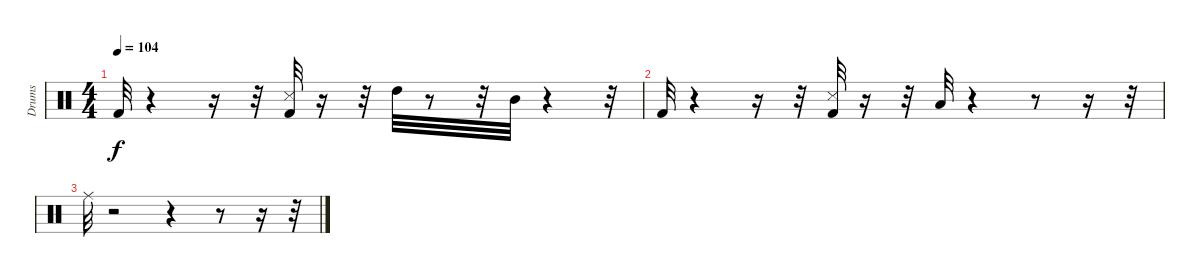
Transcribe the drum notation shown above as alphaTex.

\track ("Drums" "Drums") {instrument percussion}
\staff {score}
\articulation defaults
\ts (4 4)
\tempo 104
\clef neutral
\ks c "Kick (hit) 2".32{dy f}
r.4 r.16 r.32 ("Kick (hit) 2" "Snare (side stick) 3").32 r.16 r.32 "High Tom (hit)".32 r.8 r.32 "Mid Tom (hit)".32 r.4 r.32 |
"Kick (hit) 2".32 r.4 r.16 r.32 ("Kick (hit) 2" "Snare (side stick) 3").32 r.16 r.32 "Low Tom (hit)".32 r.4 r.8 r.16 r.32 |
"Ride (middle)".32 r.2 r.4 r.8 r.16 r.32
